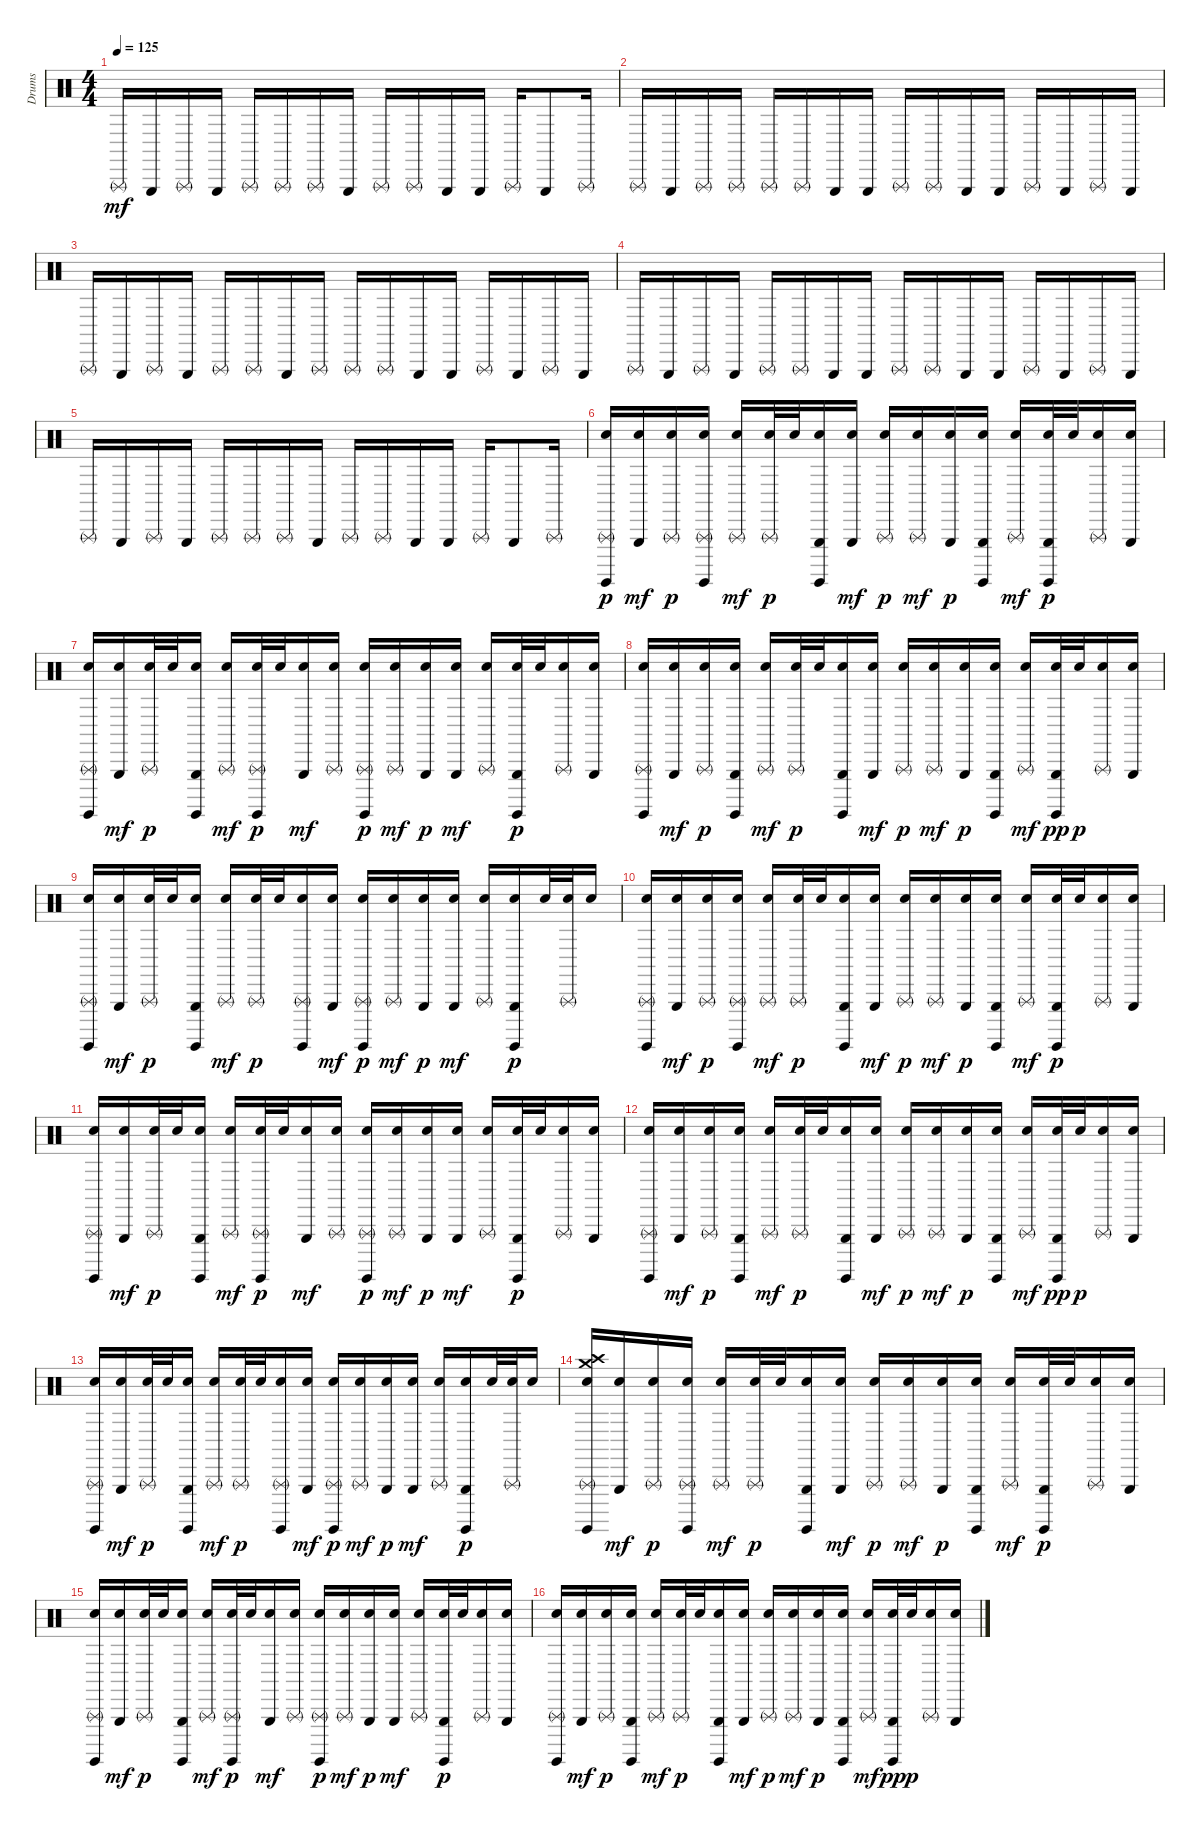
\track ("Drums" "Drums") {instrument percussion}
\staff {score}
\articulation defaults
\ts (4 4)
\tempo 125
\clef neutral
\ks c "Triangle (rnute)".16{dy mf} "Triangle (hit)".16 "Triangle (rnute)".16 "Triangle (hit)".16 "Triangle (rnute)".16 "Triangle (rnute)".16 "Triangle (rnute)".16 "Triangle (hit)".16 "Triangle (rnute)".16 "Triangle (rnute)".16 "Triangle (hit)".16 "Triangle (hit)".16 "Triangle (rnute)".16 "Triangle (hit)".8 "Triangle (rnute)".16
|
"Triangle (rnute)".16 "Triangle (hit)".16 "Triangle (rnute)".16 "Triangle (rnute)".16 "Triangle (rnute)".16 "Triangle (rnute)".16 "Triangle (hit)".16 "Triangle (hit)".16 "Triangle (rnute)".16 "Triangle (rnute)".16 "Triangle (hit)".16 "Triangle (hit)".16 "Triangle (rnute)".16 "Triangle (hit)".16 "Triangle (rnute)".16 "Triangle (hit)".16 |
"Triangle (rnute)".16 "Triangle (hit)".16 "Triangle (rnute)".16 "Triangle (hit)".16 "Triangle (rnute)".16 "Triangle (rnute)".16 "Triangle (hit)".16 "Triangle (rnute)".16 "Triangle (rnute)".16 "Triangle (rnute)".16 "Triangle (hit)".16 "Triangle (hit)".16 "Triangle (rnute)".16 "Triangle (hit)".16 "Triangle (rnute)".16 "Triangle (hit)".16 |
"Triangle (rnute)".16 "Triangle (hit)".16 "Triangle (rnute)".16 "Triangle (hit)".16 "Triangle (rnute)".16 "Triangle (rnute)".16 "Triangle (hit)".16 "Triangle (hit)".16 "Triangle (rnute)".16 "Triangle (rnute)".16 "Triangle (hit)".16 "Triangle (hit)".16 "Triangle (rnute)".16 "Triangle (hit)".16 "Triangle (rnute)".16 "Triangle (hit)".16 |
"Triangle (rnute)".16 "Triangle (hit)".16 "Triangle (rnute)".16 "Triangle (hit)".16 "Triangle (rnute)".16 "Triangle (rnute)".16 "Triangle (rnute)".16 "Triangle (hit)".16 "Triangle (rnute)".16 "Triangle (rnute)".16 "Triangle (hit)".16 "Triangle (hit)".16 "Triangle (rnute)".16 "Triangle (hit)".8 "Triangle (rnute)".16 |
("Triangle (rnute)" "Snare (hit) 2" "Surdo (hit)").16{dy p} ("Triangle (hit)" "Snare (hit) 2").16{dy mf} ("Triangle (rnute)" "Snare (hit) 2").16{dy p} ("Triangle (rnute)" "Snare (hit) 2" "Surdo (hit)").16 ("Triangle (rnute)" "Snare (hit) 2").16{dy mf} ("Triangle (rnute)" "Snare (hit) 2").32{dy p} "Snare (hit) 2".32 ("Triangle (hit)" "Snare (hit) 2" "Surdo (hit)").16 ("Triangle (hit)" "Snare (hit) 2").16{dy mf} ("Triangle (rnute)" "Snare (hit) 2").16{dy p} ("Triangle (rnute)" "Snare (hit) 2").16{dy mf} ("Triangle (hit)" "Snare (hit) 2").16{dy p} ("Triangle (hit)" "Snare (hit) 2" "Surdo (hit)").16 ("Triangle (rnute)" "Snare (hit) 2").16{dy mf} ("Triangle (hit)" "Snare (hit) 2" "Surdo (hit)").32{dy p} "Snare (hit) 2".32 ("Triangle (rnute)" "Snare (hit) 2").16 ("Triangle (hit)" "Snare (hit) 2").16 |
("Triangle (rnute)" "Snare (hit) 2" "Surdo (hit)").16 ("Triangle (hit)" "Snare (hit) 2").16{dy mf} ("Triangle (rnute)" "Snare (hit) 2").32{dy p} "Snare (hit) 2".32 ("Triangle (hit)" "Snare (hit) 2" "Surdo (hit)").16 ("Triangle (rnute)" "Snare (hit) 2").16{dy mf} ("Triangle (rnute)" "Snare (hit) 2" "Surdo (hit)").32{dy p} "Snare (hit) 2".32 ("Triangle (hit)" "Snare (hit) 2").16{dy mf} ("Triangle (rnute)" "Snare (hit) 2").16 ("Triangle (rnute)" "Snare (hit) 2" "Surdo (hit)").16{dy p} ("Triangle (rnute)" "Snare (hit) 2").16{dy mf} ("Triangle (hit)" "Snare (hit) 2").16{dy p} ("Triangle (hit)" "Snare (hit) 2").16{dy mf} ("Triangle (rnute)" "Snare (hit) 2").16 ("Triangle (hit)" "Snare (hit) 2" "Surdo (hit)").32{dy p} "Snare (hit) 2".32 ("Triangle (rnute)" "Snare (hit) 2").16 ("Triangle (hit)" "Snare (hit) 2").16 |
("Triangle (rnute)" "Snare (hit) 2" "Surdo (hit)").16 ("Triangle (hit)" "Snare (hit) 2").16{dy mf} ("Triangle (rnute)" "Snare (hit) 2").16{dy p} ("Triangle (hit)" "Snare (hit) 2" "Surdo (hit)").16 ("Triangle (rnute)" "Snare (hit) 2").16{dy mf} ("Triangle (rnute)" "Snare (hit) 2").32{dy p} "Snare (hit) 2".32 ("Triangle (hit)" "Snare (hit) 2" "Surdo (hit)").16 ("Triangle (hit)" "Snare (hit) 2").16{dy mf} ("Triangle (rnute)" "Snare (hit) 2").16{dy p} ("Triangle (rnute)" "Snare (hit) 2").16{dy mf} ("Triangle (hit)" "Snare (hit) 2").16{dy p} ("Triangle (hit)" "Snare (hit) 2" "Surdo (hit)").16 ("Triangle (rnute)" "Snare (hit) 2").16{dy mf} ("Triangle (hit)" "Snare (hit) 2" "Surdo (hit)").32{dy pp} "Snare (hit) 2".32{dy p} ("Triangle (rnute)" "Snare (hit) 2").16 ("Triangle (hit)" "Snare (hit) 2").16 |
("Triangle (rnute)" "Snare (hit) 2" "Surdo (hit)").16 ("Triangle (hit)" "Snare (hit) 2").16{dy mf} ("Triangle (rnute)" "Snare (hit) 2").32{dy p} "Snare (hit) 2".32 ("Triangle (hit)" "Snare (hit) 2" "Surdo (hit)").16 ("Triangle (rnute)" "Snare (hit) 2").16{dy mf} ("Triangle (rnute)" "Snare (hit) 2").32{dy p} "Snare (hit) 2".32 ("Triangle (rnute)" "Snare (hit) 2" "Surdo (hit)").16 ("Triangle (hit)" "Snare (hit) 2").16{dy mf} ("Triangle (rnute)" "Snare (hit) 2" "Surdo (hit)").16{dy p} ("Triangle (rnute)" "Snare (hit) 2").16{dy mf} ("Triangle (hit)" "Snare (hit) 2").16{dy p} ("Triangle (hit)" "Snare (hit) 2").16{dy mf} ("Triangle (rnute)" "Snare (hit) 2").16 ("Triangle (hit)" "Snare (hit) 2" "Surdo (hit)").16{dy p} "Snare (hit) 2".32 ("Triangle (rnute)" "Snare (hit) 2").32 "Snare (hit) 2".16 |
("Triangle (rnute)" "Snare (hit) 2" "Surdo (hit)").16 ("Triangle (hit)" "Snare (hit) 2").16{dy mf} ("Triangle (rnute)" "Snare (hit) 2").16{dy p} ("Triangle (rnute)" "Snare (hit) 2" "Surdo (hit)").16 ("Triangle (rnute)" "Snare (hit) 2").16{dy mf} ("Triangle (rnute)" "Snare (hit) 2").32{dy p} "Snare (hit) 2".32 ("Triangle (hit)" "Snare (hit) 2" "Surdo (hit)").16 ("Triangle (hit)" "Snare (hit) 2").16{dy mf} ("Triangle (rnute)" "Snare (hit) 2").16{dy p} ("Triangle (rnute)" "Snare (hit) 2").16{dy mf} ("Triangle (hit)" "Snare (hit) 2").16{dy p} ("Triangle (hit)" "Snare (hit) 2" "Surdo (hit)").16 ("Triangle (rnute)" "Snare (hit) 2").16{dy mf} ("Triangle (hit)" "Snare (hit) 2" "Surdo (hit)").32{dy p} "Snare (hit) 2".32 ("Triangle (rnute)" "Snare (hit) 2").16 ("Triangle (hit)" "Snare (hit) 2").16 |
("Triangle (rnute)" "Snare (hit) 2" "Surdo (hit)").16 ("Triangle (hit)" "Snare (hit) 2").16{dy mf} ("Triangle (rnute)" "Snare (hit) 2").32{dy p} "Snare (hit) 2".32 ("Triangle (hit)" "Snare (hit) 2" "Surdo (hit)").16 ("Triangle (rnute)" "Snare (hit) 2").16{dy mf} ("Triangle (rnute)" "Snare (hit) 2" "Surdo (hit)").32{dy p} "Snare (hit) 2".32 ("Triangle (hit)" "Snare (hit) 2").16{dy mf} ("Triangle (rnute)" "Snare (hit) 2").16 ("Triangle (rnute)" "Snare (hit) 2" "Surdo (hit)").16{dy p} ("Triangle (rnute)" "Snare (hit) 2").16{dy mf} ("Triangle (hit)" "Snare (hit) 2").16{dy p} ("Triangle (hit)" "Snare (hit) 2").16{dy mf} ("Triangle (rnute)" "Snare (hit) 2").16 ("Triangle (hit)" "Snare (hit) 2" "Surdo (hit)").32{dy p} "Snare (hit) 2".32 ("Triangle (rnute)" "Snare (hit) 2").16 ("Triangle (hit)" "Snare (hit) 2").16 |
("Triangle (rnute)" "Snare (hit) 2" "Surdo (hit)").16 ("Triangle (hit)" "Snare (hit) 2").16{dy mf} ("Triangle (rnute)" "Snare (hit) 2").16{dy p} ("Triangle (hit)" "Snare (hit) 2" "Surdo (hit)").16 ("Triangle (rnute)" "Snare (hit) 2").16{dy mf} ("Triangle (rnute)" "Snare (hit) 2").32{dy p} "Snare (hit) 2".32 ("Triangle (hit)" "Snare (hit) 2" "Surdo (hit)").16 ("Triangle (hit)" "Snare (hit) 2").16{dy mf} ("Triangle (rnute)" "Snare (hit) 2").16{dy p} ("Triangle (rnute)" "Snare (hit) 2").16{dy mf} ("Triangle (hit)" "Snare (hit) 2").16{dy p} ("Triangle (hit)" "Snare (hit) 2" "Surdo (hit)").16 ("Triangle (rnute)" "Snare (hit) 2").16{dy mf} ("Triangle (hit)" "Snare (hit) 2" "Surdo (hit)").32{dy pp} "Snare (hit) 2".32{dy p} ("Triangle (rnute)" "Snare (hit) 2").16 ("Triangle (hit)" "Snare (hit) 2").16 |
("Triangle (rnute)" "Snare (hit) 2" "Surdo (hit)").16 ("Triangle (hit)" "Snare (hit) 2").16{dy mf} ("Triangle (rnute)" "Snare (hit) 2").32{dy p} "Snare (hit) 2".32 ("Triangle (hit)" "Snare (hit) 2" "Surdo (hit)").16 ("Triangle (rnute)" "Snare (hit) 2").16{dy mf} ("Triangle (rnute)" "Snare (hit) 2").32{dy p} "Snare (hit) 2".32 ("Triangle (rnute)" "Snare (hit) 2" "Surdo (hit)").16 ("Triangle (hit)" "Snare (hit) 2").16{dy mf} ("Triangle (rnute)" "Snare (hit) 2" "Surdo (hit)").16{dy p} ("Triangle (rnute)" "Snare (hit) 2").16{dy mf} ("Triangle (hit)" "Snare (hit) 2").16{dy p} ("Triangle (hit)" "Snare (hit) 2").16{dy mf} ("Triangle (rnute)" "Snare (hit) 2").16 ("Triangle (hit)" "Snare (hit) 2" "Surdo (hit)").16{dy p} "Snare (hit) 2".32 ("Triangle (rnute)" "Snare (hit) 2").32 "Snare (hit) 2".16 |
("Triangle (rnute)" "Crash medium (hit)" "Crash high (hit)" "Snare (hit) 2" "Surdo (hit)").16 ("Triangle (hit)" "Snare (hit) 2").16{dy mf} ("Triangle (rnute)" "Snare (hit) 2").16{dy p} ("Triangle (rnute)" "Snare (hit) 2" "Surdo (hit)").16 ("Triangle (rnute)" "Snare (hit) 2").16{dy mf} ("Triangle (rnute)" "Snare (hit) 2").32{dy p} "Snare (hit) 2".32 ("Triangle (hit)" "Snare (hit) 2" "Surdo (hit)").16 ("Triangle (hit)" "Snare (hit) 2").16{dy mf} ("Triangle (rnute)" "Snare (hit) 2").16{dy p} ("Triangle (rnute)" "Snare (hit) 2").16{dy mf} ("Triangle (hit)" "Snare (hit) 2").16{dy p} ("Triangle (hit)" "Snare (hit) 2" "Surdo (hit)").16 ("Triangle (rnute)" "Snare (hit) 2").16{dy mf} ("Triangle (hit)" "Snare (hit) 2" "Surdo (hit)").32{dy p} "Snare (hit) 2".32 ("Triangle (rnute)" "Snare (hit) 2").16 ("Triangle (hit)" "Snare (hit) 2").16 |
("Triangle (rnute)" "Snare (hit) 2" "Surdo (hit)").16 ("Triangle (hit)" "Snare (hit) 2").16{dy mf} ("Triangle (rnute)" "Snare (hit) 2").32{dy p} "Snare (hit) 2".32 ("Triangle (hit)" "Snare (hit) 2" "Surdo (hit)").16 ("Triangle (rnute)" "Snare (hit) 2").16{dy mf} ("Triangle (rnute)" "Snare (hit) 2" "Surdo (hit)").32{dy p} "Snare (hit) 2".32 ("Triangle (hit)" "Snare (hit) 2").16{dy mf} ("Triangle (rnute)" "Snare (hit) 2").16 ("Triangle (rnute)" "Snare (hit) 2" "Surdo (hit)").16{dy p} ("Triangle (rnute)" "Snare (hit) 2").16{dy mf} ("Triangle (hit)" "Snare (hit) 2").16{dy p} ("Triangle (hit)" "Snare (hit) 2").16{dy mf} ("Triangle (rnute)" "Snare (hit) 2").16 ("Triangle (hit)" "Snare (hit) 2" "Surdo (hit)").32{dy p} "Snare (hit) 2".32 ("Triangle (rnute)" "Snare (hit) 2").16 ("Triangle (hit)" "Snare (hit) 2").16 |
("Triangle (rnute)" "Snare (hit) 2" "Surdo (hit)").16 ("Triangle (hit)" "Snare (hit) 2").16{dy mf} ("Triangle (rnute)" "Snare (hit) 2").16{dy p} ("Triangle (hit)" "Snare (hit) 2" "Surdo (hit)").16 ("Triangle (rnute)" "Snare (hit) 2").16{dy mf} ("Triangle (rnute)" "Snare (hit) 2").32{dy p} "Snare (hit) 2".32 ("Triangle (hit)" "Snare (hit) 2" "Surdo (hit)").16 ("Triangle (hit)" "Snare (hit) 2").16{dy mf} ("Triangle (rnute)" "Snare (hit) 2").16{dy p} ("Triangle (rnute)" "Snare (hit) 2").16{dy mf} ("Triangle (hit)" "Snare (hit) 2").16{dy p} ("Triangle (hit)" "Snare (hit) 2" "Surdo (hit)").16 ("Triangle (rnute)" "Snare (hit) 2").16{dy mf} ("Triangle (hit)" "Snare (hit) 2" "Surdo (hit)").32{dy pp} "Snare (hit) 2".32{dy p} ("Triangle (rnute)" "Snare (hit) 2").16 ("Triangle (hit)" "Snare (hit) 2").16
